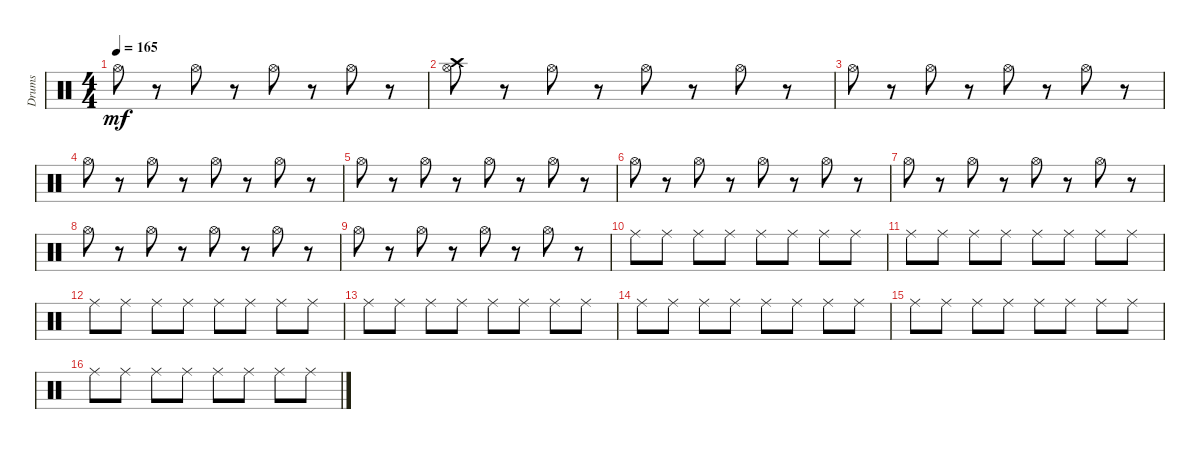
\track ("Drums" "Drums") {instrument percussion}
\staff {score}
\articulation defaults
\ts (4 4)
\tempo 165
\clef neutral
\ks c "Hi-Hat (open)".8{dy mf}
r.8 "Hi-Hat (open)".8 r.8 "Hi-Hat (open)".8 r.8 "Hi-Hat (open)".8 r.8 |
("Crash high (hit)" "Hi-Hat (open)").8 r.8 "Hi-Hat (open)".8 r.8 "Hi-Hat (open)".8 r.8 "Hi-Hat (open)".8 r.8 |
"Hi-Hat (open)".8 r.8 "Hi-Hat (open)".8 r.8 "Hi-Hat (open)".8 r.8 "Hi-Hat (open)".8 r.8 |
"Hi-Hat (open)".8 r.8 "Hi-Hat (open)".8 r.8 "Hi-Hat (open)".8 r.8 "Hi-Hat (open)".8 r.8 |
"Hi-Hat (open)".8 r.8 "Hi-Hat (open)".8 r.8 "Hi-Hat (open)".8 r.8 "Hi-Hat (open)".8 r.8 |
"Hi-Hat (open)".8 r.8 "Hi-Hat (open)".8 r.8 "Hi-Hat (open)".8 r.8 "Hi-Hat (open)".8 r.8 |
"Hi-Hat (open)".8 r.8 "Hi-Hat (open)".8 r.8 "Hi-Hat (open)".8 r.8 "Hi-Hat (open)".8 r.8 |
"Hi-Hat (open)".8 r.8 "Hi-Hat (open)".8 r.8 "Hi-Hat (open)".8 r.8 "Hi-Hat (open)".8 r.8 |
"Hi-Hat (open)".8 r.8 "Hi-Hat (open)".8 r.8 "Hi-Hat (open)".8 r.8 "Hi-Hat (open)".8 r.8 |
"Ride (middle)".8 "Ride (middle)".8 "Ride (middle)".8 "Ride (middle)".8 "Ride (middle)".8 "Ride (middle)".8 "Ride (middle)".8 "Ride (middle)".8 |
"Ride (middle)".8 "Ride (middle)".8 "Ride (middle)".8 "Ride (middle)".8 "Ride (middle)".8 "Ride (middle)".8 "Ride (middle)".8 "Ride (middle)".8 |
"Ride (middle)".8 "Ride (middle)".8 "Ride (middle)".8 "Ride (middle)".8 "Ride (middle)".8 "Ride (middle)".8 "Ride (middle)".8 "Ride (middle)".8 |
"Ride (middle)".8 "Ride (middle)".8 "Ride (middle)".8 "Ride (middle)".8 "Ride (middle)".8 "Ride (middle)".8 "Ride (middle)".8 "Ride (middle)".8 |
"Ride (middle)".8 "Ride (middle)".8 "Ride (middle)".8 "Ride (middle)".8 "Ride (middle)".8 "Ride (middle)".8 "Ride (middle)".8 "Ride (middle)".8 |
"Ride (middle)".8 "Ride (middle)".8 "Ride (middle)".8 "Ride (middle)".8 "Ride (middle)".8 "Ride (middle)".8 "Ride (middle)".8 "Ride (middle)".8 |
"Ride (middle)".8 "Ride (middle)".8 "Ride (middle)".8 "Ride (middle)".8 "Ride (middle)".8 "Ride (middle)".8 "Ride (middle)".8 "Ride (middle)".8
